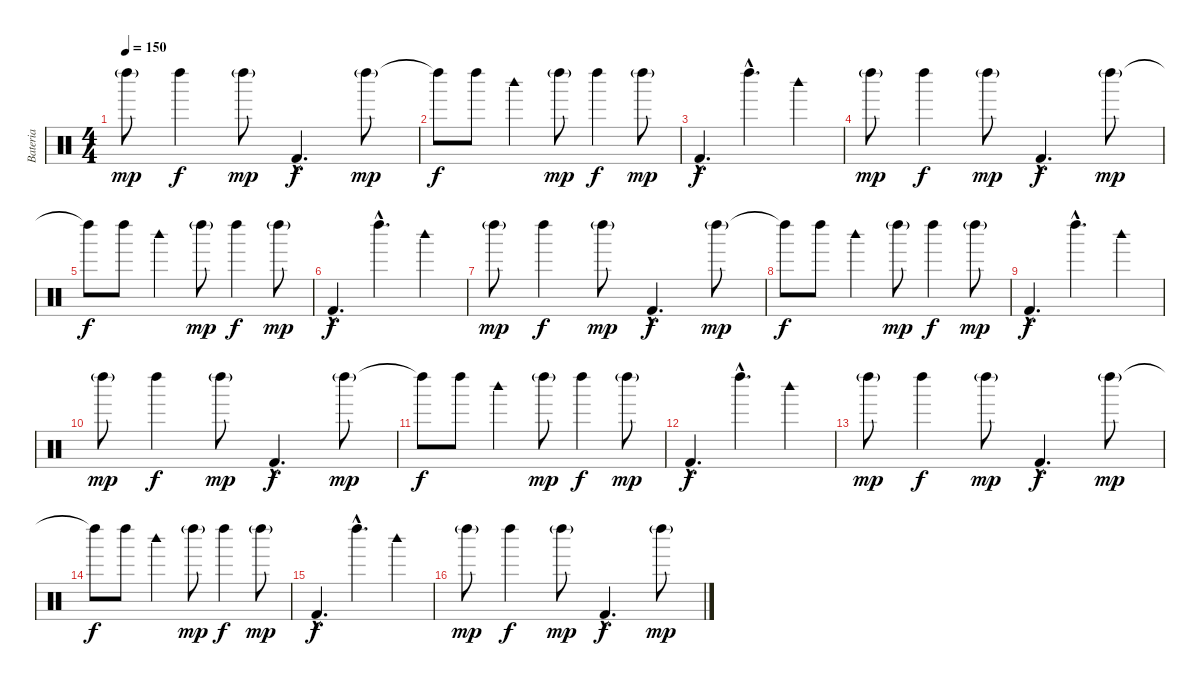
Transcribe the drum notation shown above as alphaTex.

\track ("Bateria" "Bateria") {instrument percussion}
\staff {score}
\articulation defaults
\ts (4 4)
\tempo 150
\clef neutral
\ks c "Left Maraca (hit)"{g}.8{dy mp} "Left Maraca (hit)".4{dy f} "Left Maraca (hit)"{g}.8{dy mp} "Kick (hit) 2"{hac}.4{d dy f} "Left Maraca (hit)"{g}.8{dy mp}
|
"Left Maraca (hit)"{t}.8{dy f} "Left Maraca (hit)".8 "Woodblock high (hit)".4 "Left Maraca (hit)"{g}.8{dy mp} "Left Maraca (hit)".4{dy f} "Left Maraca (hit)"{g}.8{dy mp} |
"Kick (hit) 2"{hac}.4{d dy f} "Left Maraca (hit)"{hac}.4{d} "Woodblock high (hit)".4 |
"Left Maraca (hit)"{g}.8{dy mp} "Left Maraca (hit)".4{dy f} "Left Maraca (hit)"{g}.8{dy mp} "Kick (hit) 2"{hac}.4{d dy f} "Left Maraca (hit)"{g}.8{dy mp} |
"Left Maraca (hit)"{t}.8{dy f} "Left Maraca (hit)".8 "Woodblock high (hit)".4 "Left Maraca (hit)"{g}.8{dy mp} "Left Maraca (hit)".4{dy f} "Left Maraca (hit)"{g}.8{dy mp} |
"Kick (hit) 2"{hac}.4{d dy f} "Left Maraca (hit)"{hac}.4{d} "Woodblock high (hit)".4 |
"Left Maraca (hit)"{g}.8{dy mp} "Left Maraca (hit)".4{dy f} "Left Maraca (hit)"{g}.8{dy mp} "Kick (hit) 2"{hac}.4{d dy f} "Left Maraca (hit)"{g}.8{dy mp} |
"Left Maraca (hit)"{t}.8{dy f} "Left Maraca (hit)".8 "Woodblock high (hit)".4 "Left Maraca (hit)"{g}.8{dy mp} "Left Maraca (hit)".4{dy f} "Left Maraca (hit)"{g}.8{dy mp} |
"Kick (hit) 2"{hac}.4{d dy f} "Left Maraca (hit)"{hac}.4{d} "Woodblock high (hit)".4 |
"Left Maraca (hit)"{g}.8{dy mp} "Left Maraca (hit)".4{dy f} "Left Maraca (hit)"{g}.8{dy mp} "Kick (hit) 2"{hac}.4{d dy f} "Left Maraca (hit)"{g}.8{dy mp} |
"Left Maraca (hit)"{t}.8{dy f} "Left Maraca (hit)".8 "Woodblock high (hit)".4 "Left Maraca (hit)"{g}.8{dy mp} "Left Maraca (hit)".4{dy f} "Left Maraca (hit)"{g}.8{dy mp} |
"Kick (hit) 2"{hac}.4{d dy f} "Left Maraca (hit)"{hac}.4{d} "Woodblock high (hit)".4 |
"Left Maraca (hit)"{g}.8{dy mp} "Left Maraca (hit)".4{dy f} "Left Maraca (hit)"{g}.8{dy mp} "Kick (hit) 2"{hac}.4{d dy f} "Left Maraca (hit)"{g}.8{dy mp} |
"Left Maraca (hit)"{t}.8{dy f} "Left Maraca (hit)".8 "Woodblock high (hit)".4 "Left Maraca (hit)"{g}.8{dy mp} "Left Maraca (hit)".4{dy f} "Left Maraca (hit)"{g}.8{dy mp} |
"Kick (hit) 2"{hac}.4{d dy f} "Left Maraca (hit)"{hac}.4{d} "Woodblock high (hit)".4 |
"Left Maraca (hit)"{g}.8{dy mp} "Left Maraca (hit)".4{dy f} "Left Maraca (hit)"{g}.8{dy mp} "Kick (hit) 2"{hac}.4{d dy f} "Left Maraca (hit)"{g}.8{dy mp}
